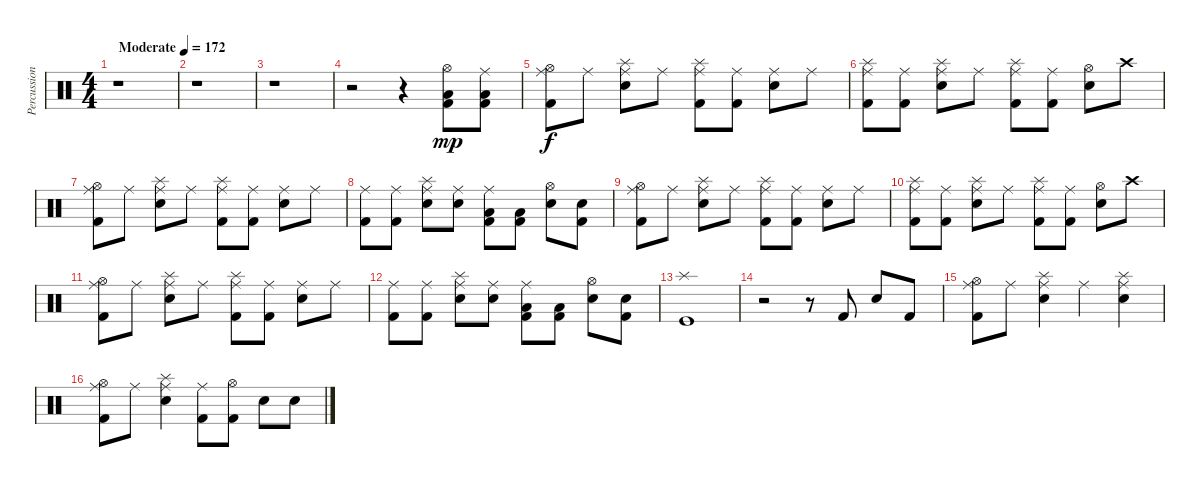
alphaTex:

\track ("Percussion" "Percussion") {instrument percussion}
\staff {score}
\articulation defaults
\ts (4 4)
\tempo (172 "Moderate")
\clef neutral
\ks c
r.1{dy mp} |
r.1 |
r.1 |
r.2 r.4 ("Hi-Hat (open)" "Low Floor Tom (hit)" "Kick (hit) 2").8 ("Ride (middle)" "Low Floor Tom (hit)" "Kick (hit) 2").8 |
("Hi-Hat (open)" "Ride (middle)" "Kick (hit) 2").8{dy f} "Ride (middle)".8 ("Ride (middle)" "Splash (hit)" "Electric Snare (hit)").8 "Ride (middle)".8 ("Ride (middle)" "Splash (hit)" "Kick (hit) 2").8 ("Ride (middle)" "Kick (hit) 2").8 ("Ride (middle)" "Electric Snare (hit)").8 "Ride (middle)".8 |
("Ride (middle)" "Splash (hit)" "Kick (hit) 2").8 ("Ride (middle)" "Kick (hit) 2").8 ("Ride (middle)" "Splash (hit)" "Electric Snare (hit)").8 "Ride (middle)".8 ("Ride (middle)" "Splash (hit)" "Kick (hit) 2").8 ("Ride (middle)" "Kick (hit) 2").8 ("Hi-Hat (open)" "Electric Snare (hit)").8 "Crash high (hit)".8 |
("Hi-Hat (open)" "Ride (middle)" "Kick (hit) 2").8 "Ride (middle)".8 ("Ride (middle)" "Splash (hit)" "Electric Snare (hit)").8 "Ride (middle)".8 ("Ride (middle)" "Splash (hit)" "Kick (hit) 2").8 ("Ride (middle)" "Kick (hit) 2").8 ("Ride (middle)" "Electric Snare (hit)").8 "Ride (middle)".8 |
("Ride (middle)" "Kick (hit) 2").8 ("Ride (middle)" "Kick (hit) 2").8 ("Ride (middle)" "Splash (hit)" "Electric Snare (hit)").8 ("Ride (middle)" "Electric Snare (hit)").8 ("Ride (middle)" "Kick (hit) 2" "Low Floor Tom (hit)").8 ("Kick (hit) 2" "Low Floor Tom (hit)").8 ("Hi-Hat (open)" "Snare (hit) 2").8 ("Electric Snare (hit)" "Kick (hit) 2").8 |
("Hi-Hat (open)" "Ride (middle)" "Kick (hit) 2").8 "Ride (middle)".8 ("Ride (middle)" "Splash (hit)" "Electric Snare (hit)").8 "Ride (middle)".8 ("Ride (middle)" "Splash (hit)" "Kick (hit) 2").8 ("Ride (middle)" "Kick (hit) 2").8 ("Ride (middle)" "Electric Snare (hit)").8 "Ride (middle)".8 |
("Ride (middle)" "Splash (hit)" "Kick (hit) 2").8 ("Ride (middle)" "Kick (hit) 2").8 ("Ride (middle)" "Splash (hit)" "Electric Snare (hit)").8 "Ride (middle)".8 ("Ride (middle)" "Splash (hit)" "Kick (hit) 2").8 ("Ride (middle)" "Kick (hit) 2").8 ("Hi-Hat (open)" "Electric Snare (hit)").8 "Crash high (hit)".8 |
("Hi-Hat (open)" "Ride (middle)" "Kick (hit) 2").8 "Ride (middle)".8 ("Ride (middle)" "Splash (hit)" "Electric Snare (hit)").8 "Ride (middle)".8 ("Ride (middle)" "Splash (hit)" "Kick (hit) 2").8 ("Ride (middle)" "Kick (hit) 2").8 ("Ride (middle)" "Electric Snare (hit)").8 "Ride (middle)".8 |
("Ride (middle)" "Kick (hit) 2").8 ("Ride (middle)" "Kick (hit) 2").8 ("Ride (middle)" "Splash (hit)" "Electric Snare (hit)").8 ("Ride (middle)" "Electric Snare (hit)").8 ("Ride (middle)" "Kick (hit) 2" "Low Floor Tom (hit)").8 ("Kick (hit) 2" "Low Floor Tom (hit)").8 ("Hi-Hat (open)" "Snare (hit) 2").8 ("Electric Snare (hit)" "Kick (hit) 2").8 |
("Kick (hit)" "Splash (hit)").1 |
r.2 r.8 "Kick (hit) 2".8 "Electric Snare (hit)".8 "Kick (hit) 2".8 |
("Hi-Hat (open)" "Ride (middle)" "Kick (hit) 2").8 "Ride (middle)".8 ("Ride (middle)" "Splash (hit)" "Electric Snare (hit)").4 "Ride (middle)".4 ("Ride (middle)" "Splash (hit)" "Electric Snare (hit)").4 |
("Hi-Hat (open)" "Ride (middle)" "Kick (hit) 2").8 "Ride (middle)".8 ("Ride (middle)" "Splash (hit)" "Electric Snare (hit)").4 ("Ride (middle)" "Kick (hit) 2").8 ("Hi-Hat (open)" "Kick (hit) 2").8 "Electric Snare (hit)".8 "Snare (hit) 2".8
